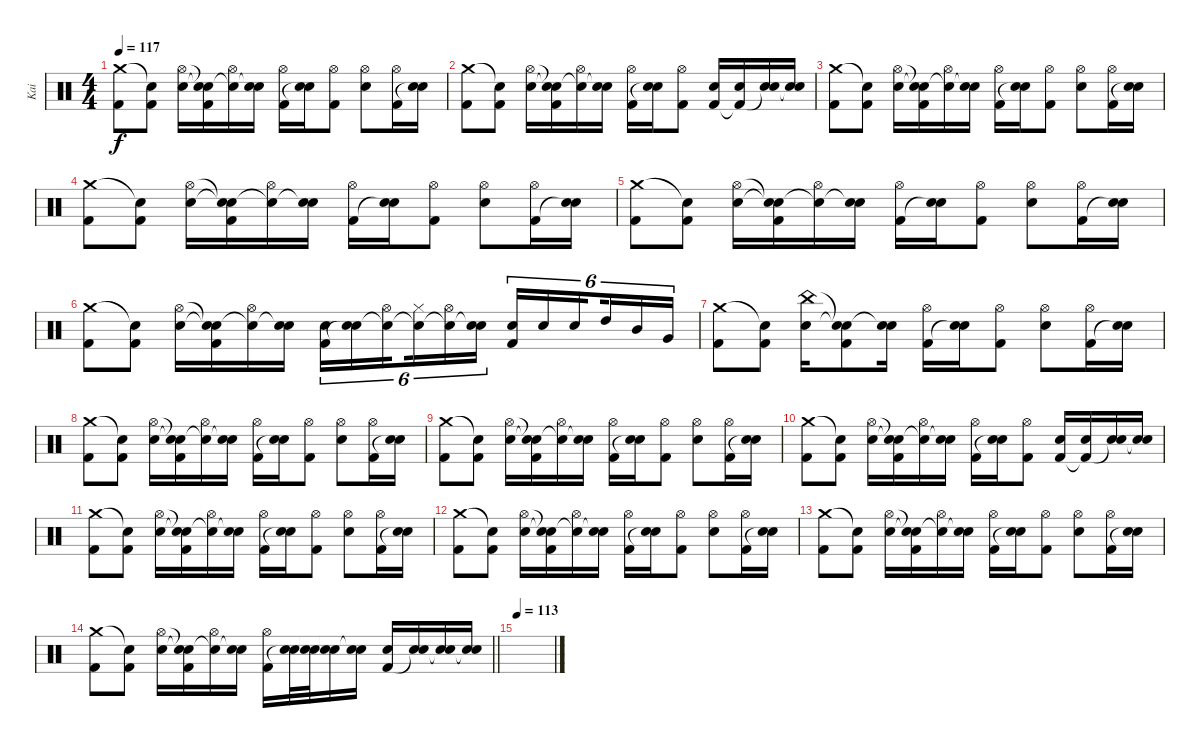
\track ("Kai" "Kai") {instrument percussion}
\staff {score}
\articulation defaults
\ts (4 4)
\tempo 117
\clef neutral
\ks c
("Crash medium (hit)" "Kick (hit) 2").8{dy f} ("Snare (hit)"{t} "Kick (hit) 2").8 ("Hi-Hat (open)" "Snare (hit) 2").16 ("Snare (hit)"{t} "Snare (hit)"{t} "Kick (hit) 2").16 ("Hi-Hat (open)" "Snare (hit)"{t}).16 ("Snare (hit) 2" "Snare (hit)"{t}).16 ("Hi-Hat (open)" "Kick (hit) 2").16 ("Snare (hit) 2" "Snare (hit)"{t}).16 ("Hi-Hat (open)" "Kick (hit) 2").8 ("Hi-Hat (open)" "Snare (hit) 2").8 ("Hi-Hat (open)" "Kick (hit) 2").16 ("Snare (hit) 2" "Snare (hit)"{t}).16 |
("Crash medium (hit)" "Kick (hit) 2").8 ("Snare (hit)"{t} "Kick (hit) 2").8 ("Hi-Hat (open)" "Snare (hit) 2").16 ("Snare (hit)"{t} "Snare (hit)"{t} "Kick (hit) 2").16 ("Hi-Hat (open)" "Snare (hit)"{t}).16 ("Snare (hit) 2" "Snare (hit)"{t}).16 ("Hi-Hat (open)" "Kick (hit) 2").16 ("Snare (hit) 2" "Snare (hit)"{t}).16 ("Hi-Hat (open)" "Kick (hit) 2").8 ("Snare (hit) 2" "Kick (hit) 2").16 ("Snare (hit) 2" "Kick (hit) 2"{t}).16 ("Snare (hit) 2" "Snare (hit)"{t}).16 ("Snare (hit) 2" "Snare (hit)"{t}).16 |
("Crash medium (hit)" "Kick (hit) 2").8 ("Snare (hit)"{t} "Kick (hit) 2").8 ("Hi-Hat (open)" "Snare (hit) 2").16 ("Snare (hit)"{t} "Snare (hit)"{t} "Kick (hit) 2").16 ("Hi-Hat (open)" "Snare (hit)"{t}).16 ("Snare (hit) 2" "Snare (hit)"{t}).16 ("Hi-Hat (open)" "Kick (hit) 2").16 ("Snare (hit) 2" "Snare (hit)"{t}).16 ("Hi-Hat (open)" "Kick (hit) 2").8 ("Hi-Hat (open)" "Snare (hit) 2").8 ("Hi-Hat (open)" "Kick (hit) 2").16 ("Snare (hit) 2" "Snare (hit)"{t}).16 |
("Crash medium (hit)" "Kick (hit) 2").8 ("Snare (hit)"{t} "Kick (hit) 2").8 ("Hi-Hat (open)" "Snare (hit) 2").16 ("Snare (hit)"{t} "Snare (hit)"{t} "Kick (hit) 2").16 ("Hi-Hat (open)" "Snare (hit)"{t}).16 ("Snare (hit) 2" "Snare (hit)"{t}).16 ("Hi-Hat (open)" "Kick (hit) 2").16 ("Snare (hit) 2" "Snare (hit)"{t}).16 ("Hi-Hat (open)" "Kick (hit) 2").8 ("Hi-Hat (open)" "Snare (hit) 2").8 ("Hi-Hat (open)" "Kick (hit) 2").16 ("Snare (hit) 2" "Snare (hit)"{t}).16 |
("Crash medium (hit)" "Kick (hit) 2").8 ("Snare (hit)"{t} "Kick (hit) 2").8 ("Hi-Hat (open)" "Snare (hit) 2").16 ("Snare (hit)"{t} "Snare (hit)"{t} "Kick (hit) 2").16 ("Hi-Hat (open)" "Snare (hit)"{t}).16 ("Snare (hit) 2" "Snare (hit)"{t}).16 ("Hi-Hat (open)" "Kick (hit) 2").16 ("Snare (hit) 2" "Snare (hit)"{t}).16 ("Hi-Hat (open)" "Kick (hit) 2").8 ("Hi-Hat (open)" "Snare (hit) 2").8 ("Hi-Hat (open)" "Kick (hit) 2").16 ("Snare (hit) 2" "Snare (hit)"{t}).16 |
("Crash medium (hit)" "Kick (hit) 2").8 ("Snare (hit)"{t} "Kick (hit) 2").8 ("Hi-Hat (open)" "Snare (hit) 2").16 ("Snare (hit)"{t} "Snare (hit)"{t} "Kick (hit) 2").16 ("Hi-Hat (open)" "Snare (hit)"{t}).16 ("Snare (hit) 2" "Snare (hit)"{t}).16 ("Snare (hit) 2" "Kick (hit) 2").16{tu (6 4)} ("Snare (hit) 2" "Snare (hit)"{t}).16{tu (6 4)} ("Hi-Hat (open)" "Snare (hit)"{t}).16{tu (6 4) beam splitsecondary} ("Hi-Hat (closed)" "Snare (hit)"{t}).16{tu (6 4)} ("Hi-Hat (open)" "Snare (hit)"{t}).16{tu (6 4)} ("Snare (hit) 2" "Snare (hit)"{t}).16{tu (6 4)} ("Snare (hit) 2" "Kick (hit) 2").16{tu (6 4)} "Snare (hit) 2".16{tu (6 4)} "Snare (hit) 2".16{tu (6 4) beam splitsecondary} "High Tom (hit)".16{tu (6 4)} "Mid Tom (hit)".16{tu (6 4)} "Very Low Tom (hit)".16{tu (6 4)} |
("Crash medium (hit)" "Kick (hit) 2").8 ("Snare (hit)"{t} "Kick (hit) 2").8 ("China (hit)" "Snare (hit) 2").16 ("Snare (hit)"{t} "Snare (hit)"{t} "Kick (hit) 2").8 ("Snare (hit) 2" "Snare (hit)"{t}).16 ("Hi-Hat (open)" "Kick (hit) 2").16 ("Snare (hit) 2" "Snare (hit)"{t}).16 ("Hi-Hat (open)" "Kick (hit) 2").8 ("Hi-Hat (open)" "Snare (hit) 2").8 ("Hi-Hat (open)" "Kick (hit) 2").16 ("Snare (hit) 2" "Snare (hit)"{t}).16 |
("Crash medium (hit)" "Kick (hit) 2").8 ("Snare (hit)"{t} "Kick (hit) 2").8 ("Hi-Hat (open)" "Snare (hit) 2").16 ("Snare (hit)"{t} "Snare (hit)"{t} "Kick (hit) 2").16 ("Hi-Hat (open)" "Snare (hit)"{t}).16 ("Snare (hit) 2" "Snare (hit)"{t}).16 ("Hi-Hat (open)" "Kick (hit) 2").16 ("Snare (hit) 2" "Snare (hit)"{t}).16 ("Hi-Hat (open)" "Kick (hit) 2").8 ("Hi-Hat (open)" "Snare (hit) 2").8 ("Hi-Hat (open)" "Kick (hit) 2").16 ("Snare (hit) 2" "Snare (hit)"{t}).16 |
("Crash medium (hit)" "Kick (hit) 2").8 ("Snare (hit)"{t} "Kick (hit) 2").8 ("Hi-Hat (open)" "Snare (hit) 2").16 ("Snare (hit)"{t} "Snare (hit)"{t} "Kick (hit) 2").16 ("Hi-Hat (open)" "Snare (hit)"{t}).16 ("Snare (hit) 2" "Snare (hit)"{t}).16 ("Hi-Hat (open)" "Kick (hit) 2").16 ("Snare (hit) 2" "Snare (hit)"{t}).16 ("Hi-Hat (open)" "Kick (hit) 2").8 ("Hi-Hat (open)" "Snare (hit) 2").8 ("Hi-Hat (open)" "Kick (hit) 2").16 ("Snare (hit) 2" "Snare (hit)"{t}).16 |
("Crash medium (hit)" "Kick (hit) 2").8 ("Snare (hit)"{t} "Kick (hit) 2").8 ("Hi-Hat (open)" "Snare (hit) 2").16 ("Snare (hit)"{t} "Snare (hit)"{t} "Kick (hit) 2").16 ("Hi-Hat (open)" "Snare (hit)"{t}).16 ("Snare (hit) 2" "Snare (hit)"{t}).16 ("Hi-Hat (open)" "Kick (hit) 2").16 ("Snare (hit) 2" "Snare (hit)"{t}).16 ("Hi-Hat (open)" "Kick (hit) 2").8 ("Snare (hit) 2" "Kick (hit) 2").16 ("Snare (hit) 2" "Kick (hit) 2"{t}).16 ("Snare (hit) 2" "Snare (hit)"{t}).16 ("Snare (hit) 2" "Snare (hit)"{t}).16 |
("Crash medium (hit)" "Kick (hit) 2").8 ("Snare (hit)"{t} "Kick (hit) 2").8 ("Hi-Hat (open)" "Snare (hit) 2").16 ("Snare (hit)"{t} "Snare (hit)"{t} "Kick (hit) 2").16 ("Hi-Hat (open)" "Snare (hit)"{t}).16 ("Snare (hit) 2" "Snare (hit)"{t}).16 ("Hi-Hat (open)" "Kick (hit) 2").16 ("Snare (hit) 2" "Snare (hit)"{t}).16 ("Hi-Hat (open)" "Kick (hit) 2").8 ("Hi-Hat (open)" "Snare (hit) 2").8 ("Hi-Hat (open)" "Kick (hit) 2").16 ("Snare (hit) 2" "Snare (hit)"{t}).16 |
("Crash medium (hit)" "Kick (hit) 2").8 ("Snare (hit)"{t} "Kick (hit) 2").8 ("Hi-Hat (open)" "Snare (hit) 2").16 ("Snare (hit)"{t} "Snare (hit)"{t} "Kick (hit) 2").16 ("Hi-Hat (open)" "Snare (hit)"{t}).16 ("Snare (hit) 2" "Snare (hit)"{t}).16 ("Hi-Hat (open)" "Kick (hit) 2").16 ("Snare (hit) 2" "Snare (hit)"{t}).16 ("Hi-Hat (open)" "Kick (hit) 2").8 ("Hi-Hat (open)" "Snare (hit) 2").8 ("Hi-Hat (open)" "Kick (hit) 2").16 ("Snare (hit) 2" "Snare (hit)"{t}).16 |
("Crash medium (hit)" "Kick (hit) 2").8 ("Snare (hit)"{t} "Kick (hit) 2").8 ("Hi-Hat (open)" "Snare (hit) 2").16 ("Snare (hit)"{t} "Snare (hit)"{t} "Kick (hit) 2").16 ("Hi-Hat (open)" "Snare (hit)"{t}).16 ("Snare (hit) 2" "Snare (hit)"{t}).16 ("Hi-Hat (open)" "Kick (hit) 2").16 ("Snare (hit) 2" "Snare (hit)"{t}).16 ("Hi-Hat (open)" "Kick (hit) 2").8 ("Hi-Hat (open)" "Snare (hit) 2").8 ("Hi-Hat (open)" "Kick (hit) 2").16 ("Snare (hit) 2" "Snare (hit)"{t}).16 |
\barLineRight lightlight
("Crash medium (hit)" "Kick (hit) 2").8 ("Snare (hit)"{t} "Kick (hit) 2").8 ("Hi-Hat (open)" "Snare (hit) 2").16 ("Snare (hit)"{t} "Snare (hit)"{t} "Kick (hit) 2").16 ("Hi-Hat (open)" "Snare (hit)"{t}).16 ("Snare (hit) 2" "Snare (hit)"{t}).16 ("Hi-Hat (open)" "Kick (hit) 2").16 ("Snare (hit) 2" "Snare (hit)"{t}).32 ("Snare (hit) 2" "Snare (hit)"{t}).32 ("Snare (hit) 2" "Snare (hit)"{t}).16 ("Snare (hit) 2" "Snare (hit)"{t}).16 ("Snare (hit) 2" "Kick (hit) 2").16 ("Snare (hit) 2" "Snare (hit)"{t}).16 ("Snare (hit) 2" "Snare (hit)"{t}).16 ("Snare (hit) 2" "Snare (hit)"{t}).16 |
\tempo 113
